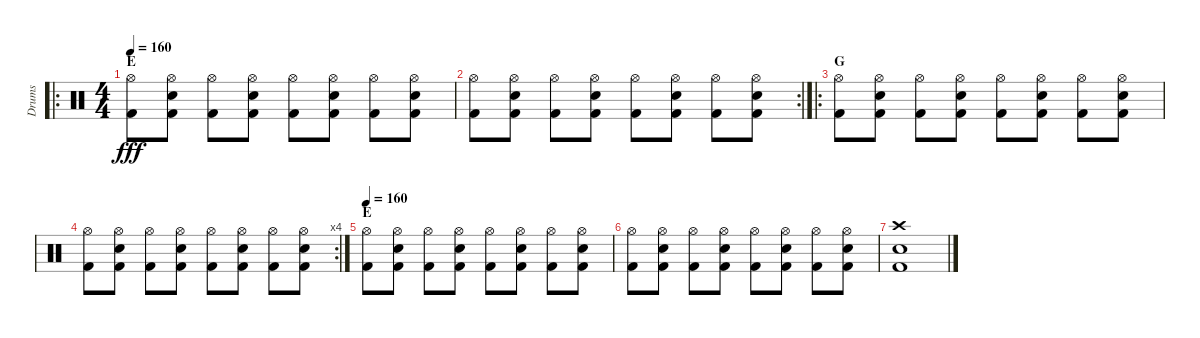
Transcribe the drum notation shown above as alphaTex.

\track ("Drums" "Drums") {instrument percussion}
\staff {score}
\articulation defaults
\ro
\ts (4 4)
\section ("" "E")
\tempo 160
\clef neutral
\ks c
("Hi-Hat (open)" "Kick (hit) 2").8{dy fff} ("Hi-Hat (open)" "Electric Snare (hit)" "Kick (hit) 2").8 ("Hi-Hat (open)" "Kick (hit) 2").8 ("Hi-Hat (open)" "Electric Snare (hit)" "Kick (hit) 2").8 ("Hi-Hat (open)" "Kick (hit) 2").8 ("Hi-Hat (open)" "Electric Snare (hit)" "Kick (hit) 2").8 ("Hi-Hat (open)" "Kick (hit) 2").8 ("Hi-Hat (open)" "Electric Snare (hit)" "Kick (hit) 2").8 |
\rc 2
("Hi-Hat (open)" "Kick (hit) 2").8 ("Hi-Hat (open)" "Electric Snare (hit)" "Kick (hit) 2").8 ("Hi-Hat (open)" "Kick (hit) 2").8 ("Hi-Hat (open)" "Electric Snare (hit)" "Kick (hit) 2").8 ("Hi-Hat (open)" "Kick (hit) 2").8 ("Hi-Hat (open)" "Electric Snare (hit)" "Kick (hit) 2").8 ("Hi-Hat (open)" "Kick (hit) 2").8 ("Hi-Hat (open)" "Electric Snare (hit)" "Kick (hit) 2").8 |
\ro
\section ("" "G")
("Hi-Hat (open)" "Kick (hit) 2").8 ("Hi-Hat (open)" "Electric Snare (hit)" "Kick (hit) 2").8 ("Hi-Hat (open)" "Kick (hit) 2").8 ("Hi-Hat (open)" "Electric Snare (hit)" "Kick (hit) 2").8 ("Hi-Hat (open)" "Kick (hit) 2").8 ("Hi-Hat (open)" "Electric Snare (hit)" "Kick (hit) 2").8 ("Hi-Hat (open)" "Kick (hit) 2").8 ("Hi-Hat (open)" "Electric Snare (hit)" "Kick (hit) 2").8 |
\rc 4
("Hi-Hat (open)" "Kick (hit) 2").8 ("Hi-Hat (open)" "Electric Snare (hit)" "Kick (hit) 2").8 ("Hi-Hat (open)" "Kick (hit) 2").8 ("Hi-Hat (open)" "Electric Snare (hit)" "Kick (hit) 2").8 ("Hi-Hat (open)" "Kick (hit) 2").8 ("Hi-Hat (open)" "Electric Snare (hit)" "Kick (hit) 2").8 ("Hi-Hat (open)" "Kick (hit) 2").8 ("Hi-Hat (open)" "Electric Snare (hit)" "Kick (hit) 2").8 |
\section ("" "E")
\tempo 160
("Hi-Hat (open)" "Kick (hit) 2").8 ("Hi-Hat (open)" "Electric Snare (hit)" "Kick (hit) 2").8 ("Hi-Hat (open)" "Kick (hit) 2").8 ("Hi-Hat (open)" "Electric Snare (hit)" "Kick (hit) 2").8 ("Hi-Hat (open)" "Kick (hit) 2").8 ("Hi-Hat (open)" "Electric Snare (hit)" "Kick (hit) 2").8 ("Hi-Hat (open)" "Kick (hit) 2").8 ("Hi-Hat (open)" "Electric Snare (hit)" "Kick (hit) 2").8 |
("Hi-Hat (open)" "Kick (hit) 2").8 ("Hi-Hat (open)" "Electric Snare (hit)" "Kick (hit) 2").8 ("Hi-Hat (open)" "Kick (hit) 2").8 ("Hi-Hat (open)" "Electric Snare (hit)" "Kick (hit) 2").8 ("Hi-Hat (open)" "Kick (hit) 2").8 ("Hi-Hat (open)" "Electric Snare (hit)" "Kick (hit) 2").8 ("Hi-Hat (open)" "Kick (hit) 2").8 ("Hi-Hat (open)" "Electric Snare (hit)" "Kick (hit) 2").8 |
("Electric Snare (hit)" "Crash high (hit)" "Kick (hit) 2").1
